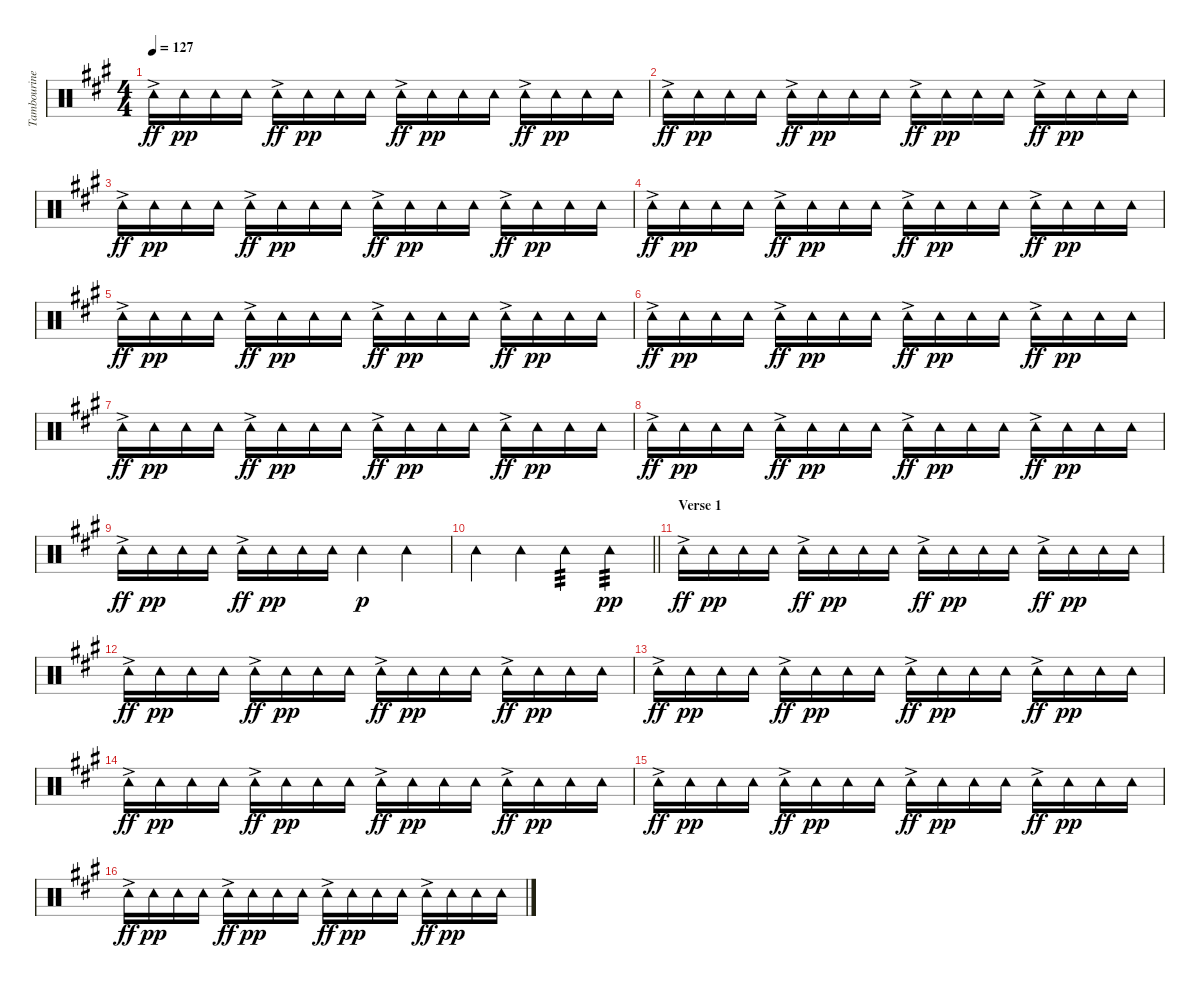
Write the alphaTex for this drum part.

\track ("Tambourine" "Tambourine") {instrument percussion}
\staff {score}
\articulation defaults
\ts (4 4)
\tempo 127
\clef neutral
\ks a "Tambourine (hit)"{ac}.16{dy ff} "Tambourine (hit)".16{dy pp} "Tambourine (hit)".16 "Tambourine (hit)".16 "Tambourine (hit)"{ac}.16{dy ff} "Tambourine (hit)".16{dy pp} "Tambourine (hit)".16 "Tambourine (hit)".16 "Tambourine (hit)"{ac}.16{dy ff} "Tambourine (hit)".16{dy pp} "Tambourine (hit)".16 "Tambourine (hit)".16 "Tambourine (hit)"{ac}.16{dy ff} "Tambourine (hit)".16{dy pp} "Tambourine (hit)".16 "Tambourine (hit)".16
|
"Tambourine (hit)"{ac}.16{dy ff} "Tambourine (hit)".16{dy pp} "Tambourine (hit)".16 "Tambourine (hit)".16 "Tambourine (hit)"{ac}.16{dy ff} "Tambourine (hit)".16{dy pp} "Tambourine (hit)".16 "Tambourine (hit)".16 "Tambourine (hit)"{ac}.16{dy ff} "Tambourine (hit)".16{dy pp} "Tambourine (hit)".16 "Tambourine (hit)".16 "Tambourine (hit)"{ac}.16{dy ff} "Tambourine (hit)".16{dy pp} "Tambourine (hit)".16 "Tambourine (hit)".16 |
"Tambourine (hit)"{ac}.16{dy ff} "Tambourine (hit)".16{dy pp} "Tambourine (hit)".16 "Tambourine (hit)".16 "Tambourine (hit)"{ac}.16{dy ff} "Tambourine (hit)".16{dy pp} "Tambourine (hit)".16 "Tambourine (hit)".16 "Tambourine (hit)"{ac}.16{dy ff} "Tambourine (hit)".16{dy pp} "Tambourine (hit)".16 "Tambourine (hit)".16 "Tambourine (hit)"{ac}.16{dy ff} "Tambourine (hit)".16{dy pp} "Tambourine (hit)".16 "Tambourine (hit)".16 |
"Tambourine (hit)"{ac}.16{dy ff} "Tambourine (hit)".16{dy pp} "Tambourine (hit)".16 "Tambourine (hit)".16 "Tambourine (hit)"{ac}.16{dy ff} "Tambourine (hit)".16{dy pp} "Tambourine (hit)".16 "Tambourine (hit)".16 "Tambourine (hit)"{ac}.16{dy ff} "Tambourine (hit)".16{dy pp} "Tambourine (hit)".16 "Tambourine (hit)".16 "Tambourine (hit)"{ac}.16{dy ff} "Tambourine (hit)".16{dy pp} "Tambourine (hit)".16 "Tambourine (hit)".16 |
"Tambourine (hit)"{ac}.16{dy ff} "Tambourine (hit)".16{dy pp} "Tambourine (hit)".16 "Tambourine (hit)".16 "Tambourine (hit)"{ac}.16{dy ff} "Tambourine (hit)".16{dy pp} "Tambourine (hit)".16 "Tambourine (hit)".16 "Tambourine (hit)"{ac}.16{dy ff} "Tambourine (hit)".16{dy pp} "Tambourine (hit)".16 "Tambourine (hit)".16 "Tambourine (hit)"{ac}.16{dy ff} "Tambourine (hit)".16{dy pp} "Tambourine (hit)".16 "Tambourine (hit)".16 |
"Tambourine (hit)"{ac}.16{dy ff} "Tambourine (hit)".16{dy pp} "Tambourine (hit)".16 "Tambourine (hit)".16 "Tambourine (hit)"{ac}.16{dy ff} "Tambourine (hit)".16{dy pp} "Tambourine (hit)".16 "Tambourine (hit)".16 "Tambourine (hit)"{ac}.16{dy ff} "Tambourine (hit)".16{dy pp} "Tambourine (hit)".16 "Tambourine (hit)".16 "Tambourine (hit)"{ac}.16{dy ff} "Tambourine (hit)".16{dy pp} "Tambourine (hit)".16 "Tambourine (hit)".16 |
"Tambourine (hit)"{ac}.16{dy ff} "Tambourine (hit)".16{dy pp} "Tambourine (hit)".16 "Tambourine (hit)".16 "Tambourine (hit)"{ac}.16{dy ff} "Tambourine (hit)".16{dy pp} "Tambourine (hit)".16 "Tambourine (hit)".16 "Tambourine (hit)"{ac}.16{dy ff} "Tambourine (hit)".16{dy pp} "Tambourine (hit)".16 "Tambourine (hit)".16 "Tambourine (hit)"{ac}.16{dy ff} "Tambourine (hit)".16{dy pp} "Tambourine (hit)".16 "Tambourine (hit)".16 |
"Tambourine (hit)"{ac}.16{dy ff} "Tambourine (hit)".16{dy pp} "Tambourine (hit)".16 "Tambourine (hit)".16 "Tambourine (hit)"{ac}.16{dy ff} "Tambourine (hit)".16{dy pp} "Tambourine (hit)".16 "Tambourine (hit)".16 "Tambourine (hit)"{ac}.16{dy ff} "Tambourine (hit)".16{dy pp} "Tambourine (hit)".16 "Tambourine (hit)".16 "Tambourine (hit)"{ac}.16{dy ff} "Tambourine (hit)".16{dy pp} "Tambourine (hit)".16 "Tambourine (hit)".16 |
"Tambourine (hit)"{ac}.16{dy ff} "Tambourine (hit)".16{dy pp} "Tambourine (hit)".16 "Tambourine (hit)".16 "Tambourine (hit)"{ac}.16{dy ff} "Tambourine (hit)".16{dy pp} "Tambourine (hit)".16 "Tambourine (hit)".16 "Tambourine (hit)".4{dy p} "Tambourine (hit)".4 |
\barLineRight lightlight "Tambourine (hit)".4 "Tambourine (hit)".4 "Tambourine (hit)".4{tp 3} "Tambourine (hit)".4{tp 3 dy pp}
|
\section ("" "Verse 1")
"Tambourine (hit)"{ac}.16{dy ff} "Tambourine (hit)".16{dy pp} "Tambourine (hit)".16 "Tambourine (hit)".16 "Tambourine (hit)"{ac}.16{dy ff} "Tambourine (hit)".16{dy pp} "Tambourine (hit)".16 "Tambourine (hit)".16 "Tambourine (hit)"{ac}.16{dy ff} "Tambourine (hit)".16{dy pp} "Tambourine (hit)".16 "Tambourine (hit)".16 "Tambourine (hit)"{ac}.16{dy ff} "Tambourine (hit)".16{dy pp} "Tambourine (hit)".16 "Tambourine (hit)".16 |
"Tambourine (hit)"{ac}.16{dy ff} "Tambourine (hit)".16{dy pp} "Tambourine (hit)".16 "Tambourine (hit)".16 "Tambourine (hit)"{ac}.16{dy ff} "Tambourine (hit)".16{dy pp} "Tambourine (hit)".16 "Tambourine (hit)".16 "Tambourine (hit)"{ac}.16{dy ff} "Tambourine (hit)".16{dy pp} "Tambourine (hit)".16 "Tambourine (hit)".16 "Tambourine (hit)"{ac}.16{dy ff} "Tambourine (hit)".16{dy pp} "Tambourine (hit)".16 "Tambourine (hit)".16 |
"Tambourine (hit)"{ac}.16{dy ff} "Tambourine (hit)".16{dy pp} "Tambourine (hit)".16 "Tambourine (hit)".16 "Tambourine (hit)"{ac}.16{dy ff} "Tambourine (hit)".16{dy pp} "Tambourine (hit)".16 "Tambourine (hit)".16 "Tambourine (hit)"{ac}.16{dy ff} "Tambourine (hit)".16{dy pp} "Tambourine (hit)".16 "Tambourine (hit)".16 "Tambourine (hit)"{ac}.16{dy ff} "Tambourine (hit)".16{dy pp} "Tambourine (hit)".16 "Tambourine (hit)".16 |
"Tambourine (hit)"{ac}.16{dy ff} "Tambourine (hit)".16{dy pp} "Tambourine (hit)".16 "Tambourine (hit)".16 "Tambourine (hit)"{ac}.16{dy ff} "Tambourine (hit)".16{dy pp} "Tambourine (hit)".16 "Tambourine (hit)".16 "Tambourine (hit)"{ac}.16{dy ff} "Tambourine (hit)".16{dy pp} "Tambourine (hit)".16 "Tambourine (hit)".16 "Tambourine (hit)"{ac}.16{dy ff} "Tambourine (hit)".16{dy pp} "Tambourine (hit)".16 "Tambourine (hit)".16 |
"Tambourine (hit)"{ac}.16{dy ff} "Tambourine (hit)".16{dy pp} "Tambourine (hit)".16 "Tambourine (hit)".16 "Tambourine (hit)"{ac}.16{dy ff} "Tambourine (hit)".16{dy pp} "Tambourine (hit)".16 "Tambourine (hit)".16 "Tambourine (hit)"{ac}.16{dy ff} "Tambourine (hit)".16{dy pp} "Tambourine (hit)".16 "Tambourine (hit)".16 "Tambourine (hit)"{ac}.16{dy ff} "Tambourine (hit)".16{dy pp} "Tambourine (hit)".16 "Tambourine (hit)".16 |
"Tambourine (hit)"{ac}.16{dy ff} "Tambourine (hit)".16{dy pp} "Tambourine (hit)".16 "Tambourine (hit)".16 "Tambourine (hit)"{ac}.16{dy ff} "Tambourine (hit)".16{dy pp} "Tambourine (hit)".16 "Tambourine (hit)".16 "Tambourine (hit)"{ac}.16{dy ff} "Tambourine (hit)".16{dy pp} "Tambourine (hit)".16 "Tambourine (hit)".16 "Tambourine (hit)"{ac}.16{dy ff} "Tambourine (hit)".16{dy pp} "Tambourine (hit)".16 "Tambourine (hit)".16
